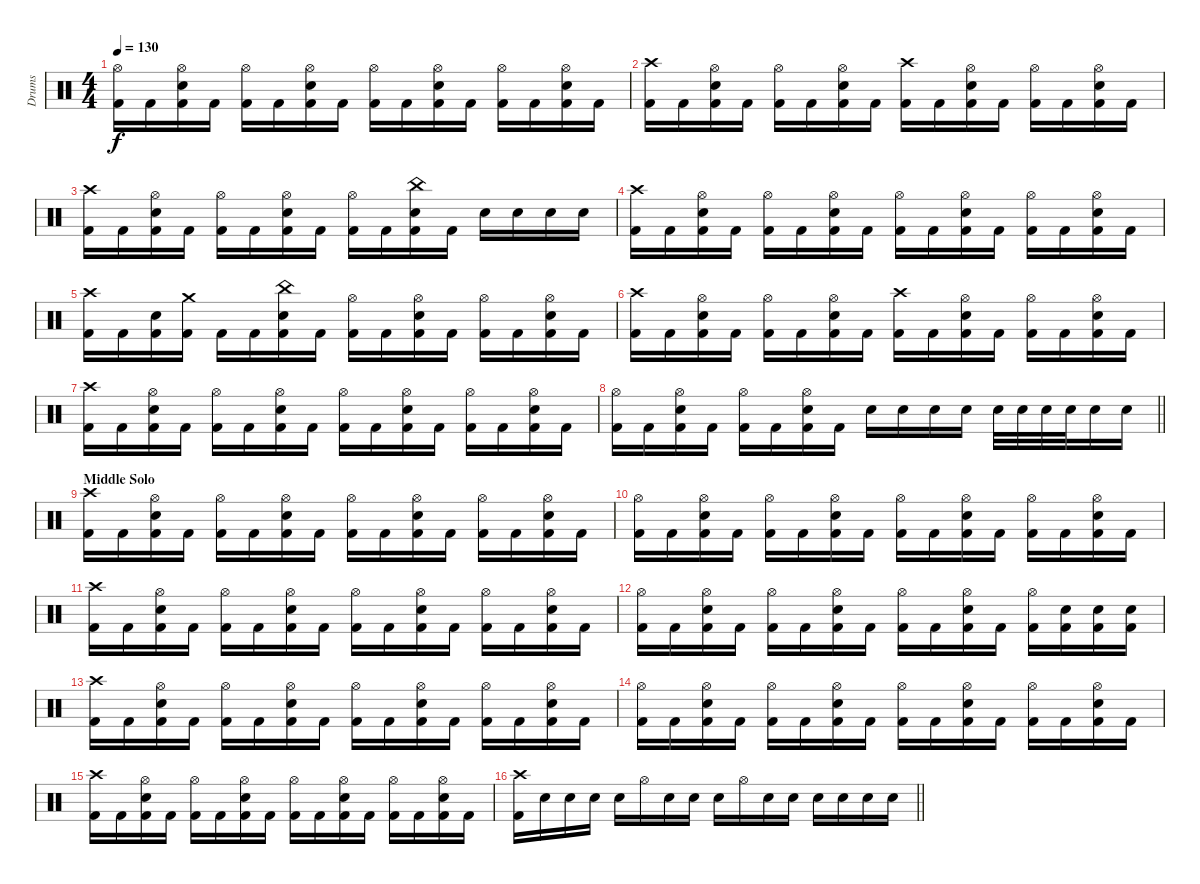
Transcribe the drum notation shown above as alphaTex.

\track ("Drums" "Drums") {instrument percussion}
\staff {score}
\articulation defaults
\ts (4 4)
\tempo 130
\clef neutral
\ks c
("Hi-Hat (open)" "Kick (hit) 2").16{dy f} "Kick (hit) 2".16 ("Hi-Hat (open)" "Electric Snare (hit)" "Kick (hit) 2").16 "Kick (hit) 2".16 ("Hi-Hat (open)" "Kick (hit) 2").16 "Kick (hit) 2".16 ("Hi-Hat (open)" "Electric Snare (hit)" "Kick (hit) 2").16 "Kick (hit) 2".16 ("Hi-Hat (open)" "Kick (hit) 2").16 "Kick (hit) 2".16 ("Hi-Hat (open)" "Electric Snare (hit)" "Kick (hit) 2").16 "Kick (hit) 2".16 ("Hi-Hat (open)" "Kick (hit) 2").16 "Kick (hit) 2".16 ("Hi-Hat (open)" "Electric Snare (hit)" "Kick (hit) 2").16 "Kick (hit) 2".16 |
("Crash high (hit)" "Kick (hit) 2").16 "Kick (hit) 2".16 ("Hi-Hat (open)" "Electric Snare (hit)" "Kick (hit) 2").16 "Kick (hit) 2".16 ("Hi-Hat (open)" "Kick (hit) 2").16 "Kick (hit) 2".16 ("Hi-Hat (open)" "Electric Snare (hit)" "Kick (hit) 2").16 "Kick (hit) 2".16 ("Crash high (hit)" "Kick (hit) 2").16 "Kick (hit) 2".16 ("Hi-Hat (open)" "Electric Snare (hit)" "Kick (hit) 2").16 "Kick (hit) 2".16 ("Hi-Hat (open)" "Kick (hit) 2").16 "Kick (hit) 2".16 ("Hi-Hat (open)" "Electric Snare (hit)" "Kick (hit) 2").16 "Kick (hit) 2".16 |
("Crash high (hit)" "Kick (hit) 2").16 "Kick (hit) 2".16 ("Hi-Hat (open)" "Electric Snare (hit)" "Kick (hit) 2").16 "Kick (hit) 2".16 ("Hi-Hat (open)" "Kick (hit) 2").16 "Kick (hit) 2".16 ("Hi-Hat (open)" "Electric Snare (hit)" "Kick (hit) 2").16 "Kick (hit) 2".16 ("Hi-Hat (open)" "Kick (hit) 2").16 "Kick (hit) 2".16 ("China (hit)" "Electric Snare (hit)" "Kick (hit) 2").16 "Kick (hit) 2".16 "Electric Snare (hit)".16 "Electric Snare (hit)".16 "Electric Snare (hit)".16 "Electric Snare (hit)".16 |
("Crash high (hit)" "Kick (hit) 2").16 "Kick (hit) 2".16 ("Hi-Hat (open)" "Electric Snare (hit)" "Kick (hit) 2").16 "Kick (hit) 2".16 ("Hi-Hat (open)" "Kick (hit) 2").16 "Kick (hit) 2".16 ("Hi-Hat (open)" "Electric Snare (hit)" "Kick (hit) 2").16 "Kick (hit) 2".16 ("Hi-Hat (open)" "Kick (hit) 2").16 "Kick (hit) 2".16 ("Hi-Hat (open)" "Electric Snare (hit)" "Kick (hit) 2").16 "Kick (hit) 2".16 ("Hi-Hat (open)" "Kick (hit) 2").16 "Kick (hit) 2".16 ("Hi-Hat (open)" "Electric Snare (hit)" "Kick (hit) 2").16 "Kick (hit) 2".16 |
("Crash high (hit)" "Kick (hit) 2").16 "Kick (hit) 2".16 ("Electric Snare (hit)" "Kick (hit) 2").16 ("Crash medium (hit)" "Kick (hit) 2").16 "Kick (hit) 2".16 "Kick (hit) 2".16 ("China (hit)" "Electric Snare (hit)" "Kick (hit) 2").16 "Kick (hit) 2".16 ("Hi-Hat (open)" "Kick (hit) 2").16 "Kick (hit) 2".16 ("Hi-Hat (open)" "Electric Snare (hit)" "Kick (hit) 2").16 "Kick (hit) 2".16 ("Hi-Hat (open)" "Kick (hit) 2").16 "Kick (hit) 2".16 ("Hi-Hat (open)" "Electric Snare (hit)" "Kick (hit) 2").16 "Kick (hit) 2".16 |
("Crash high (hit)" "Kick (hit) 2").16 "Kick (hit) 2".16 ("Hi-Hat (open)" "Electric Snare (hit)" "Kick (hit) 2").16 "Kick (hit) 2".16 ("Hi-Hat (open)" "Kick (hit) 2").16 "Kick (hit) 2".16 ("Hi-Hat (open)" "Electric Snare (hit)" "Kick (hit) 2").16 "Kick (hit) 2".16 ("Crash high (hit)" "Kick (hit) 2").16 "Kick (hit) 2".16 ("Hi-Hat (open)" "Electric Snare (hit)" "Kick (hit) 2").16 "Kick (hit) 2".16 ("Hi-Hat (open)" "Kick (hit) 2").16 "Kick (hit) 2".16 ("Hi-Hat (open)" "Electric Snare (hit)" "Kick (hit) 2").16 "Kick (hit) 2".16 |
("Crash high (hit)" "Kick (hit) 2").16 "Kick (hit) 2".16 ("Hi-Hat (open)" "Electric Snare (hit)" "Kick (hit) 2").16 "Kick (hit) 2".16 ("Hi-Hat (open)" "Kick (hit) 2").16 "Kick (hit) 2".16 ("Hi-Hat (open)" "Electric Snare (hit)" "Kick (hit) 2").16 "Kick (hit) 2".16 ("Hi-Hat (open)" "Kick (hit) 2").16 "Kick (hit) 2".16 ("Hi-Hat (open)" "Electric Snare (hit)" "Kick (hit) 2").16 "Kick (hit) 2".16 ("Hi-Hat (open)" "Kick (hit) 2").16 "Kick (hit) 2".16 ("Hi-Hat (open)" "Electric Snare (hit)" "Kick (hit) 2").16 "Kick (hit) 2".16 |
\barLineRight lightlight
("Hi-Hat (open)" "Kick (hit) 2").16 "Kick (hit) 2".16 ("Hi-Hat (open)" "Electric Snare (hit)" "Kick (hit) 2").16 "Kick (hit) 2".16 ("Hi-Hat (open)" "Kick (hit) 2").16 "Kick (hit) 2".16 ("Hi-Hat (open)" "Electric Snare (hit)" "Kick (hit) 2").16 "Kick (hit) 2".16 "Electric Snare (hit)".16 "Electric Snare (hit)".16 "Electric Snare (hit)".16 "Electric Snare (hit)".16 "Electric Snare (hit)".32 "Electric Snare (hit)".32 "Electric Snare (hit)".32 "Electric Snare (hit)".32 "Electric Snare (hit)".16 "Electric Snare (hit)".16 |
\section ("" "Middle Solo")
("Crash high (hit)" "Kick (hit) 2").16 "Kick (hit) 2".16 ("Hi-Hat (open)" "Electric Snare (hit)" "Kick (hit) 2").16 "Kick (hit) 2".16 ("Hi-Hat (open)" "Kick (hit) 2").16 "Kick (hit) 2".16 ("Hi-Hat (open)" "Electric Snare (hit)" "Kick (hit) 2").16 "Kick (hit) 2".16 ("Hi-Hat (open)" "Kick (hit) 2").16 "Kick (hit) 2".16 ("Hi-Hat (open)" "Electric Snare (hit)" "Kick (hit) 2").16 "Kick (hit) 2".16 ("Hi-Hat (open)" "Kick (hit) 2").16 "Kick (hit) 2".16 ("Hi-Hat (open)" "Electric Snare (hit)" "Kick (hit) 2").16 "Kick (hit) 2".16 |
("Hi-Hat (open)" "Kick (hit) 2").16 "Kick (hit) 2".16 ("Hi-Hat (open)" "Electric Snare (hit)" "Kick (hit) 2").16 "Kick (hit) 2".16 ("Hi-Hat (open)" "Kick (hit) 2").16 "Kick (hit) 2".16 ("Hi-Hat (open)" "Electric Snare (hit)" "Kick (hit) 2").16 "Kick (hit) 2".16 ("Hi-Hat (open)" "Kick (hit) 2").16 "Kick (hit) 2".16 ("Hi-Hat (open)" "Electric Snare (hit)" "Kick (hit) 2").16 "Kick (hit) 2".16 ("Hi-Hat (open)" "Kick (hit) 2").16 "Kick (hit) 2".16 ("Hi-Hat (open)" "Electric Snare (hit)" "Kick (hit) 2").16 "Kick (hit) 2".16 |
("Crash high (hit)" "Kick (hit) 2").16 "Kick (hit) 2".16 ("Hi-Hat (open)" "Electric Snare (hit)" "Kick (hit) 2").16 "Kick (hit) 2".16 ("Hi-Hat (open)" "Kick (hit) 2").16 "Kick (hit) 2".16 ("Hi-Hat (open)" "Electric Snare (hit)" "Kick (hit) 2").16 "Kick (hit) 2".16 ("Hi-Hat (open)" "Kick (hit) 2").16 "Kick (hit) 2".16 ("Hi-Hat (open)" "Electric Snare (hit)" "Kick (hit) 2").16 "Kick (hit) 2".16 ("Hi-Hat (open)" "Kick (hit) 2").16 "Kick (hit) 2".16 ("Hi-Hat (open)" "Electric Snare (hit)" "Kick (hit) 2").16 "Kick (hit) 2".16 |
("Hi-Hat (open)" "Kick (hit) 2").16 "Kick (hit) 2".16 ("Hi-Hat (open)" "Electric Snare (hit)" "Kick (hit) 2").16 "Kick (hit) 2".16 ("Hi-Hat (open)" "Kick (hit) 2").16 "Kick (hit) 2".16 ("Hi-Hat (open)" "Electric Snare (hit)" "Kick (hit) 2").16 "Kick (hit) 2".16 ("Hi-Hat (open)" "Kick (hit) 2").16 "Kick (hit) 2".16 ("Hi-Hat (open)" "Electric Snare (hit)" "Kick (hit) 2").16 "Kick (hit) 2".16 ("Hi-Hat (open)" "Kick (hit) 2").16 ("Electric Snare (hit)" "Kick (hit) 2").16 ("Electric Snare (hit)" "Kick (hit) 2").16 ("Electric Snare (hit)" "Kick (hit) 2").16 |
("Crash high (hit)" "Kick (hit) 2").16 "Kick (hit) 2".16 ("Hi-Hat (open)" "Electric Snare (hit)" "Kick (hit) 2").16 "Kick (hit) 2".16 ("Hi-Hat (open)" "Kick (hit) 2").16 "Kick (hit) 2".16 ("Hi-Hat (open)" "Electric Snare (hit)" "Kick (hit) 2").16 "Kick (hit) 2".16 ("Hi-Hat (open)" "Kick (hit) 2").16 "Kick (hit) 2".16 ("Hi-Hat (open)" "Electric Snare (hit)" "Kick (hit) 2").16 "Kick (hit) 2".16 ("Hi-Hat (open)" "Kick (hit) 2").16 "Kick (hit) 2".16 ("Hi-Hat (open)" "Electric Snare (hit)" "Kick (hit) 2").16 "Kick (hit) 2".16 |
("Hi-Hat (open)" "Kick (hit) 2").16 "Kick (hit) 2".16 ("Hi-Hat (open)" "Electric Snare (hit)" "Kick (hit) 2").16 "Kick (hit) 2".16 ("Hi-Hat (open)" "Kick (hit) 2").16 "Kick (hit) 2".16 ("Hi-Hat (open)" "Electric Snare (hit)" "Kick (hit) 2").16 "Kick (hit) 2".16 ("Hi-Hat (open)" "Kick (hit) 2").16 "Kick (hit) 2".16 ("Hi-Hat (open)" "Electric Snare (hit)" "Kick (hit) 2").16 "Kick (hit) 2".16 ("Hi-Hat (open)" "Kick (hit) 2").16 "Kick (hit) 2".16 ("Hi-Hat (open)" "Electric Snare (hit)" "Kick (hit) 2").16 "Kick (hit) 2".16 |
("Crash high (hit)" "Kick (hit) 2").16 "Kick (hit) 2".16 ("Hi-Hat (open)" "Electric Snare (hit)" "Kick (hit) 2").16 "Kick (hit) 2".16 ("Hi-Hat (open)" "Kick (hit) 2").16 "Kick (hit) 2".16 ("Hi-Hat (open)" "Electric Snare (hit)" "Kick (hit) 2").16 "Kick (hit) 2".16 ("Hi-Hat (open)" "Kick (hit) 2").16 "Kick (hit) 2".16 ("Hi-Hat (open)" "Electric Snare (hit)" "Kick (hit) 2").16 "Kick (hit) 2".16 ("Hi-Hat (open)" "Kick (hit) 2").16 "Kick (hit) 2".16 ("Hi-Hat (open)" "Electric Snare (hit)" "Kick (hit) 2").16 "Kick (hit) 2".16 |
\barLineRight lightlight
("Crash high (hit)" "Kick (hit) 2").16 "Electric Snare (hit)".16 "Electric Snare (hit)".16 "Electric Snare (hit)".16 "Electric Snare (hit)".16 "Hi-Hat (open)".16 "Electric Snare (hit)".16 "Electric Snare (hit)".16 "Electric Snare (hit)".16 "Hi-Hat (open)".16 "Electric Snare (hit)".16 "Electric Snare (hit)".16 "Electric Snare (hit)".16 "Electric Snare (hit)".16 "Electric Snare (hit)".16 "Electric Snare (hit)".16
